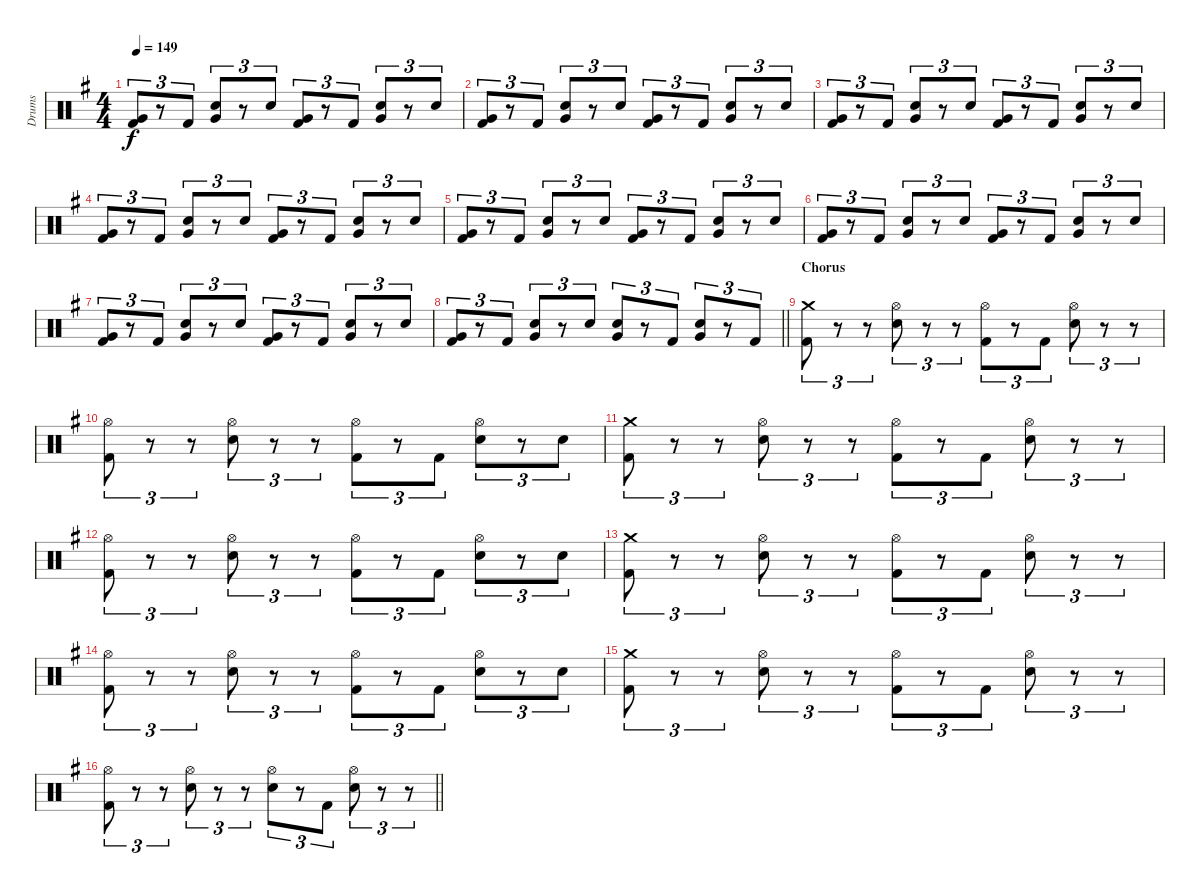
\track ("Drums" "Drums") {instrument percussion}
\staff {score}
\articulation defaults
\ts (4 4)
\tempo 149
\clef neutral
\ks g
("Very Low Tom (hit)" "Kick (hit) 2").8{tu (3 2) dy f} r.8{tu (3 2)} "Kick (hit) 2".8{tu (3 2)} ("Electric Snare (hit)" "Very Low Tom (hit)").8{tu (3 2)} r.8{tu (3 2)} "Electric Snare (hit)".8{tu (3 2)} ("Very Low Tom (hit)" "Kick (hit) 2").8{tu (3 2)} r.8{tu (3 2)} "Kick (hit) 2".8{tu (3 2)} ("Electric Snare (hit)" "Very Low Tom (hit)").8{tu (3 2)} r.8{tu (3 2)} "Electric Snare (hit)".8{tu (3 2)} |
("Very Low Tom (hit)" "Kick (hit) 2").8{tu (3 2)} r.8{tu (3 2)} "Kick (hit) 2".8{tu (3 2)} ("Electric Snare (hit)" "Very Low Tom (hit)").8{tu (3 2)} r.8{tu (3 2)} "Electric Snare (hit)".8{tu (3 2)} ("Very Low Tom (hit)" "Kick (hit) 2").8{tu (3 2)} r.8{tu (3 2)} "Kick (hit) 2".8{tu (3 2)} ("Electric Snare (hit)" "Very Low Tom (hit)").8{tu (3 2)} r.8{tu (3 2)} "Electric Snare (hit)".8{tu (3 2)} |
("Very Low Tom (hit)" "Kick (hit) 2").8{tu (3 2)} r.8{tu (3 2)} "Kick (hit) 2".8{tu (3 2)} ("Electric Snare (hit)" "Very Low Tom (hit)").8{tu (3 2)} r.8{tu (3 2)} "Electric Snare (hit)".8{tu (3 2)} ("Very Low Tom (hit)" "Kick (hit) 2").8{tu (3 2)} r.8{tu (3 2)} "Kick (hit) 2".8{tu (3 2)} ("Electric Snare (hit)" "Very Low Tom (hit)").8{tu (3 2)} r.8{tu (3 2)} "Electric Snare (hit)".8{tu (3 2)} |
("Very Low Tom (hit)" "Kick (hit) 2").8{tu (3 2)} r.8{tu (3 2)} "Kick (hit) 2".8{tu (3 2)} ("Electric Snare (hit)" "Very Low Tom (hit)").8{tu (3 2)} r.8{tu (3 2)} "Electric Snare (hit)".8{tu (3 2)} ("Very Low Tom (hit)" "Kick (hit) 2").8{tu (3 2)} r.8{tu (3 2)} "Kick (hit) 2".8{tu (3 2)} ("Electric Snare (hit)" "Very Low Tom (hit)").8{tu (3 2)} r.8{tu (3 2)} "Electric Snare (hit)".8{tu (3 2)} |
("Very Low Tom (hit)" "Kick (hit) 2").8{tu (3 2)} r.8{tu (3 2)} "Kick (hit) 2".8{tu (3 2)} ("Electric Snare (hit)" "Very Low Tom (hit)").8{tu (3 2)} r.8{tu (3 2)} "Electric Snare (hit)".8{tu (3 2)} ("Very Low Tom (hit)" "Kick (hit) 2").8{tu (3 2)} r.8{tu (3 2)} "Kick (hit) 2".8{tu (3 2)} ("Electric Snare (hit)" "Very Low Tom (hit)").8{tu (3 2)} r.8{tu (3 2)} "Electric Snare (hit)".8{tu (3 2)} |
("Very Low Tom (hit)" "Kick (hit) 2").8{tu (3 2)} r.8{tu (3 2)} "Kick (hit) 2".8{tu (3 2)} ("Electric Snare (hit)" "Very Low Tom (hit)").8{tu (3 2)} r.8{tu (3 2)} "Electric Snare (hit)".8{tu (3 2)} ("Very Low Tom (hit)" "Kick (hit) 2").8{tu (3 2)} r.8{tu (3 2)} "Kick (hit) 2".8{tu (3 2)} ("Electric Snare (hit)" "Very Low Tom (hit)").8{tu (3 2)} r.8{tu (3 2)} "Electric Snare (hit)".8{tu (3 2)} |
("Very Low Tom (hit)" "Kick (hit) 2").8{tu (3 2)} r.8{tu (3 2)} "Kick (hit) 2".8{tu (3 2)} ("Electric Snare (hit)" "Very Low Tom (hit)").8{tu (3 2)} r.8{tu (3 2)} "Electric Snare (hit)".8{tu (3 2)} ("Very Low Tom (hit)" "Kick (hit) 2").8{tu (3 2)} r.8{tu (3 2)} "Kick (hit) 2".8{tu (3 2)} ("Electric Snare (hit)" "Very Low Tom (hit)").8{tu (3 2)} r.8{tu (3 2)} "Electric Snare (hit)".8{tu (3 2)} |
\barLineRight lightlight
("Very Low Tom (hit)" "Kick (hit) 2").8{tu (3 2)} r.8{tu (3 2)} "Kick (hit) 2".8{tu (3 2)} ("Electric Snare (hit)" "Very Low Tom (hit)").8{tu (3 2)} r.8{tu (3 2)} "Electric Snare (hit)".8{tu (3 2)} ("Electric Snare (hit)" "Very Low Tom (hit)").8{tu (3 2)} r.8{tu (3 2)} "Kick (hit) 2".8{tu (3 2)} ("Electric Snare (hit)" "Very Low Tom (hit)").8{tu (3 2)} r.8{tu (3 2)} "Kick (hit) 2".8{tu (3 2)} |
\section ("" "Chorus")
("Crash medium (hit)" "Kick (hit) 2").8{tu (3 2)} r.8{tu (3 2)} r.8{tu (3 2)} ("Hi-Hat (open)" "Electric Snare (hit)").8{tu (3 2)} r.8{tu (3 2)} r.8{tu (3 2)} ("Hi-Hat (open)" "Kick (hit) 2").8{tu (3 2)} r.8{tu (3 2)} "Kick (hit) 2".8{tu (3 2)} ("Hi-Hat (open)" "Electric Snare (hit)").8{tu (3 2)} r.8{tu (3 2)} r.8{tu (3 2)} |
("Hi-Hat (open)" "Kick (hit) 2").8{tu (3 2)} r.8{tu (3 2)} r.8{tu (3 2)} ("Hi-Hat (open)" "Electric Snare (hit)").8{tu (3 2)} r.8{tu (3 2)} r.8{tu (3 2)} ("Hi-Hat (open)" "Kick (hit) 2").8{tu (3 2)} r.8{tu (3 2)} "Kick (hit) 2".8{tu (3 2)} ("Hi-Hat (open)" "Electric Snare (hit)").8{tu (3 2)} r.8{tu (3 2)} "Electric Snare (hit)".8{tu (3 2)} |
("Crash medium (hit)" "Kick (hit) 2").8{tu (3 2)} r.8{tu (3 2)} r.8{tu (3 2)} ("Hi-Hat (open)" "Electric Snare (hit)").8{tu (3 2)} r.8{tu (3 2)} r.8{tu (3 2)} ("Hi-Hat (open)" "Kick (hit) 2").8{tu (3 2)} r.8{tu (3 2)} "Kick (hit) 2".8{tu (3 2)} ("Hi-Hat (open)" "Electric Snare (hit)").8{tu (3 2)} r.8{tu (3 2)} r.8{tu (3 2)} |
("Hi-Hat (open)" "Kick (hit) 2").8{tu (3 2)} r.8{tu (3 2)} r.8{tu (3 2)} ("Hi-Hat (open)" "Electric Snare (hit)").8{tu (3 2)} r.8{tu (3 2)} r.8{tu (3 2)} ("Hi-Hat (open)" "Kick (hit) 2").8{tu (3 2)} r.8{tu (3 2)} "Kick (hit) 2".8{tu (3 2)} ("Hi-Hat (open)" "Electric Snare (hit)").8{tu (3 2)} r.8{tu (3 2)} "Electric Snare (hit)".8{tu (3 2)} |
("Crash medium (hit)" "Kick (hit) 2").8{tu (3 2)} r.8{tu (3 2)} r.8{tu (3 2)} ("Hi-Hat (open)" "Electric Snare (hit)").8{tu (3 2)} r.8{tu (3 2)} r.8{tu (3 2)} ("Hi-Hat (open)" "Kick (hit) 2").8{tu (3 2)} r.8{tu (3 2)} "Kick (hit) 2".8{tu (3 2)} ("Hi-Hat (open)" "Electric Snare (hit)").8{tu (3 2)} r.8{tu (3 2)} r.8{tu (3 2)} |
("Hi-Hat (open)" "Kick (hit) 2").8{tu (3 2)} r.8{tu (3 2)} r.8{tu (3 2)} ("Hi-Hat (open)" "Electric Snare (hit)").8{tu (3 2)} r.8{tu (3 2)} r.8{tu (3 2)} ("Hi-Hat (open)" "Kick (hit) 2").8{tu (3 2)} r.8{tu (3 2)} "Kick (hit) 2".8{tu (3 2)} ("Hi-Hat (open)" "Electric Snare (hit)").8{tu (3 2)} r.8{tu (3 2)} "Electric Snare (hit)".8{tu (3 2)} |
("Crash medium (hit)" "Kick (hit) 2").8{tu (3 2)} r.8{tu (3 2)} r.8{tu (3 2)} ("Hi-Hat (open)" "Electric Snare (hit)").8{tu (3 2)} r.8{tu (3 2)} r.8{tu (3 2)} ("Hi-Hat (open)" "Kick (hit) 2").8{tu (3 2)} r.8{tu (3 2)} "Kick (hit) 2".8{tu (3 2)} ("Hi-Hat (open)" "Electric Snare (hit)").8{tu (3 2)} r.8{tu (3 2)} r.8{tu (3 2)} |
\barLineRight lightlight
("Hi-Hat (open)" "Kick (hit) 2").8{tu (3 2)} r.8{tu (3 2)} r.8{tu (3 2)} ("Hi-Hat (open)" "Electric Snare (hit)").8{tu (3 2)} r.8{tu (3 2)} r.8{tu (3 2)} ("Hi-Hat (open)" "Electric Snare (hit)").8{tu (3 2)} r.8{tu (3 2)} "Kick (hit) 2".8{tu (3 2)} ("Hi-Hat (open)" "Electric Snare (hit)").8{tu (3 2)} r.8{tu (3 2)} r.8{tu (3 2)}
